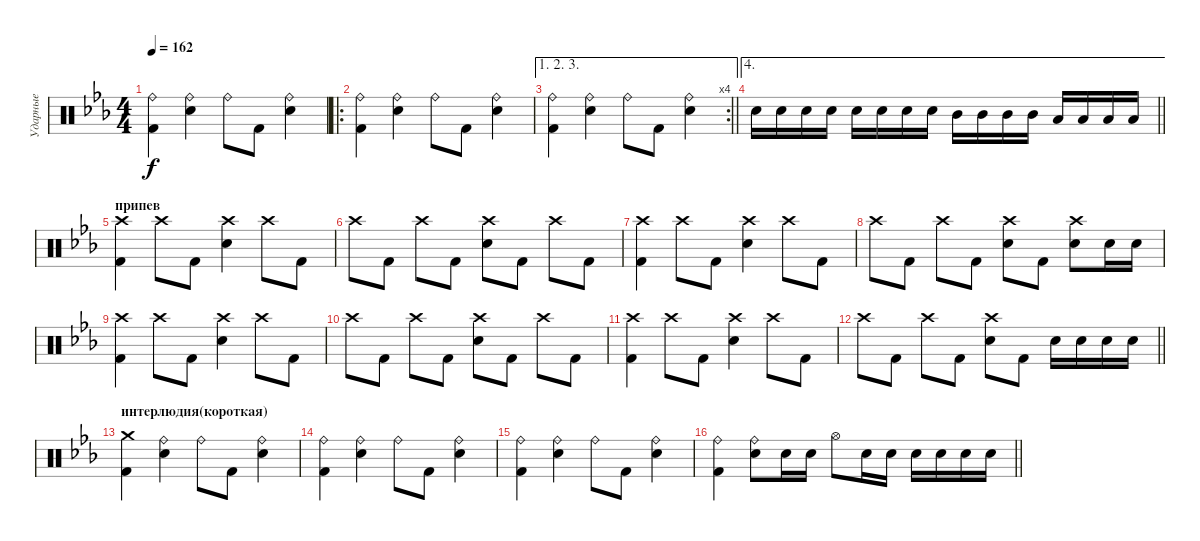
\track ("Ударные" "Ударные") {instrument percussion}
\staff {score}
\articulation defaults
\ts (4 4)
\tempo 162
\clef neutral
\ks cminor
("Ride (bell)" "Kick (hit) 2").4{dy f} ("Ride (bell)" "Snare (hit) 2").4 "Ride (bell)".8 "Kick (hit) 2".8 ("Ride (bell)" "Snare (hit) 2").4 |
\ro
("Ride (bell)" "Kick (hit) 2").4 ("Ride (bell)" "Snare (hit) 2").4 "Ride (bell)".8 "Kick (hit) 2".8 ("Ride (bell)" "Snare (hit) 2").4 |
\ae (1 2 3)
\rc 4
\barLineRight lightlight
("Ride (bell)" "Kick (hit) 2").4 ("Ride (bell)" "Snare (hit) 2").4 "Ride (bell)".8 "Kick (hit) 2".8 ("Ride (bell)" "Snare (hit) 2").4 |
\ae 4
\barLineRight lightlight "Snare (hit) 2".16 "Snare (hit) 2".16 "Snare (hit) 2".16 "Snare (hit) 2".16 "Snare (hit) 2".16 "Snare (hit) 2".16 "Snare (hit) 2".16 "Snare (hit) 2".16 "Mid Tom (hit)".16 "Mid Tom (hit)".16 "Mid Tom (hit)".16 "Mid Tom (hit)".16 "Low Tom (hit)".16 "Low Tom (hit)".16 "Low Tom (hit)".16 "Low Tom (hit)".16
|
\section ("" "припев")
("Crash high (hit)" "Kick (hit) 2").4 "Crash high (hit)".8 "Kick (hit) 2".8 ("Crash high (hit)" "Snare (hit) 2").4 "Crash high (hit)".8 "Kick (hit) 2".8 |
"Crash high (hit)".8 "Kick (hit) 2".8 "Crash high (hit)".8 "Kick (hit) 2".8 ("Crash high (hit)" "Snare (hit) 2").8 "Kick (hit) 2".8 "Crash high (hit)".8 "Kick (hit) 2".8 |
("Crash high (hit)" "Kick (hit) 2").4 "Crash high (hit)".8 "Kick (hit) 2".8 ("Crash high (hit)" "Snare (hit) 2").4 "Crash high (hit)".8 "Kick (hit) 2".8 |
"Crash high (hit)".8 "Kick (hit) 2".8 "Crash high (hit)".8 "Kick (hit) 2".8 ("Crash high (hit)" "Snare (hit) 2").8 "Kick (hit) 2".8 ("Crash high (hit)" "Snare (hit) 2").8 "Snare (hit) 2".16 "Snare (hit) 2".16 |
("Crash high (hit)" "Kick (hit) 2").4 "Crash high (hit)".8 "Kick (hit) 2".8 ("Crash high (hit)" "Snare (hit) 2").4 "Crash high (hit)".8 "Kick (hit) 2".8 |
"Crash high (hit)".8 "Kick (hit) 2".8 "Crash high (hit)".8 "Kick (hit) 2".8 ("Crash high (hit)" "Snare (hit) 2").8 "Kick (hit) 2".8 "Crash high (hit)".8 "Kick (hit) 2".8 |
("Crash high (hit)" "Kick (hit) 2").4 "Crash high (hit)".8 "Kick (hit) 2".8 ("Crash high (hit)" "Snare (hit) 2").4 "Crash high (hit)".8 "Kick (hit) 2".8 |
\barLineRight lightlight "Crash high (hit)".8 "Kick (hit) 2".8 "Crash high (hit)".8 "Kick (hit) 2".8
("Crash high (hit)" "Snare (hit) 2").8 "Kick (hit) 2".8 "Snare (hit) 2".16 "Snare (hit) 2".16 "Snare (hit) 2".16 "Snare (hit) 2".16 |
\section ("" "интерлюдия(короткая)")
("Crash medium (hit)" "Kick (hit) 2").4 ("Ride (bell)" "Snare (hit) 2").4 "Ride (bell)".8 "Kick (hit) 2".8 ("Ride (bell)" "Snare (hit) 2").4 |
("Ride (bell)" "Kick (hit) 2").4 ("Ride (bell)" "Snare (hit) 2").4 "Ride (bell)".8 "Kick (hit) 2".8 ("Ride (bell)" "Snare (hit) 2").4 |
("Ride (bell)" "Kick (hit) 2").4 ("Ride (bell)" "Snare (hit) 2").4 "Ride (bell)".8 "Kick (hit) 2".8 ("Ride (bell)" "Snare (hit) 2").4 |
\barLineRight lightlight
("Ride (bell)" "Kick (hit) 2").4 ("Ride (bell)" "Snare (hit) 2").8 "Snare (hit) 2".16 "Snare (hit) 2".16 "Hi-Hat (open)".8 "Snare (hit) 2".16 "Snare (hit) 2".16 "Snare (hit) 2".16 "Snare (hit) 2".16 "Snare (hit) 2".16 "Snare (hit) 2".16
